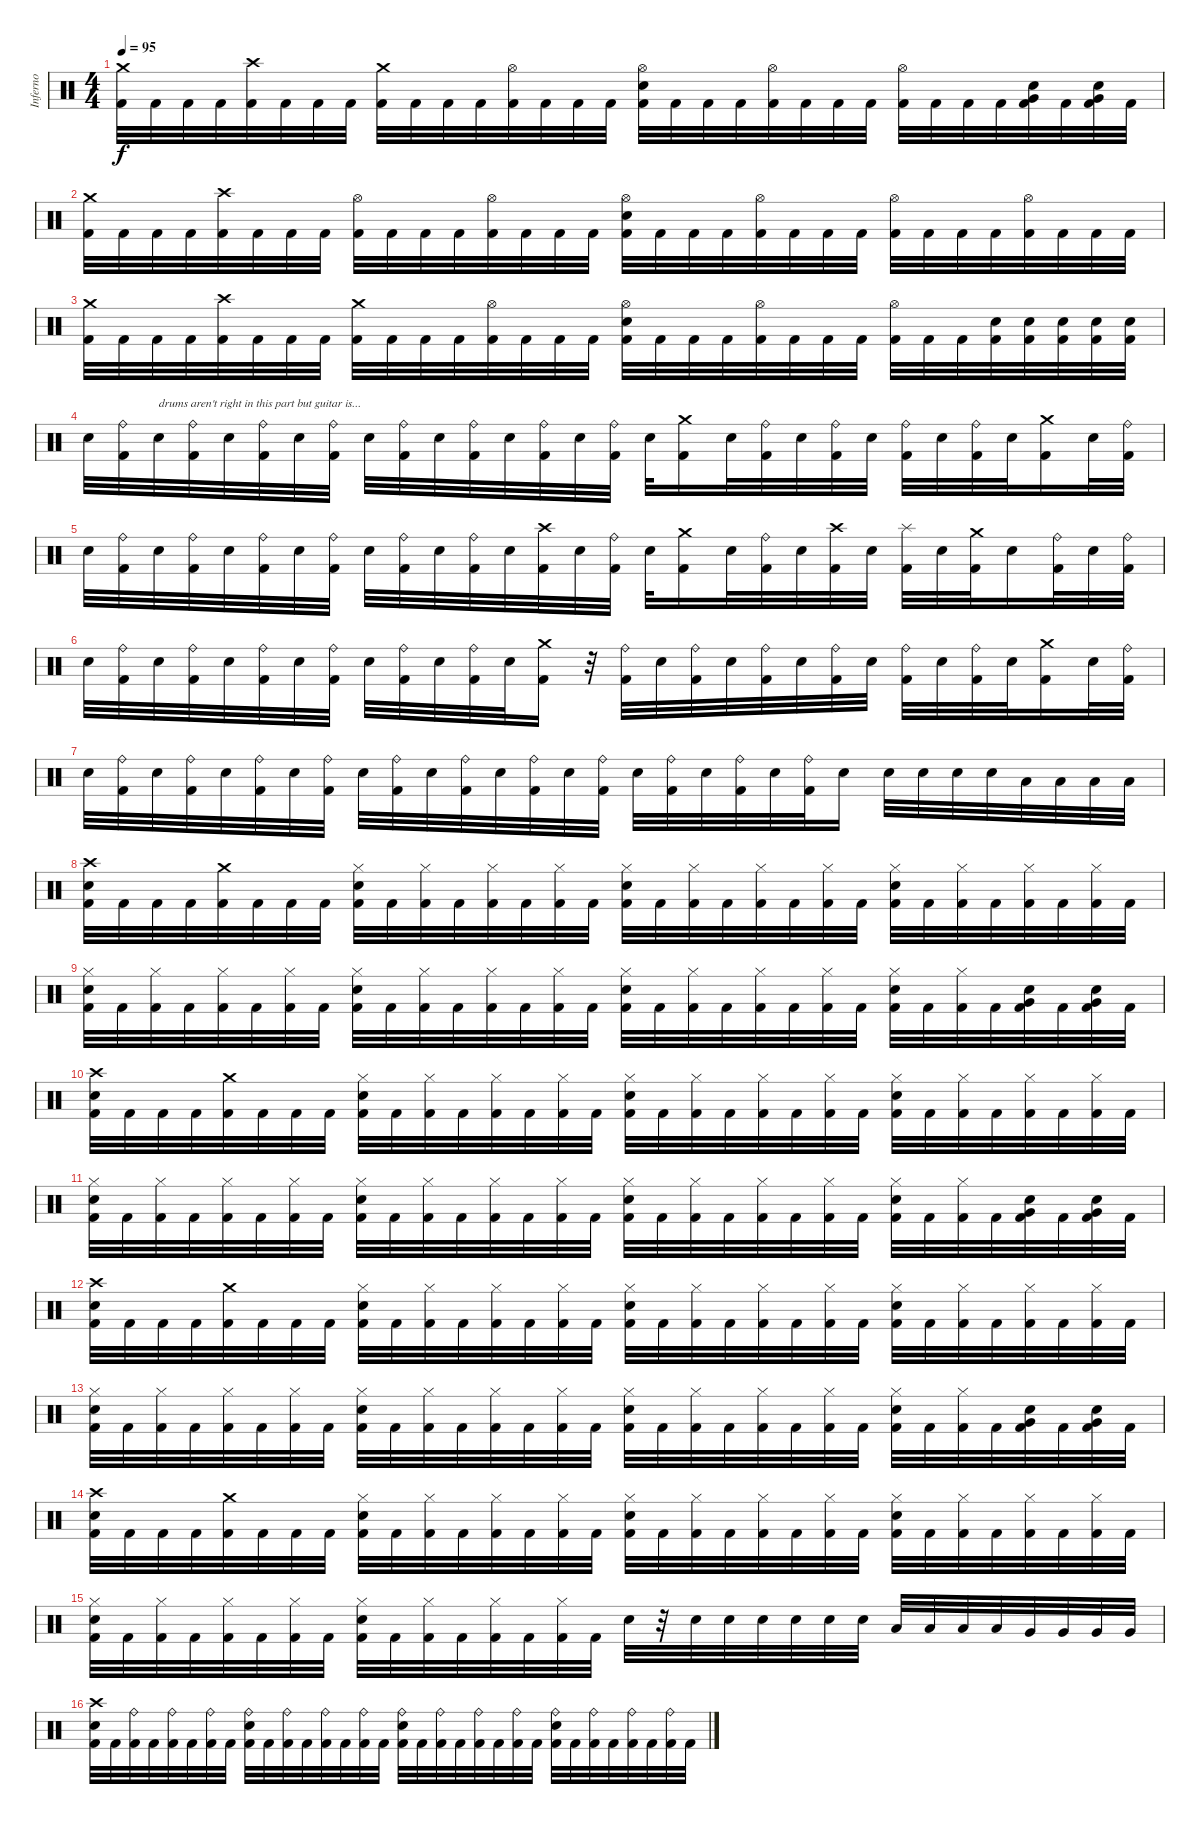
\track ("Inferno" "Inferno") {instrument percussion}
\staff {score}
\articulation defaults
\ts (4 4)
\tempo 95
\clef neutral
\ks c
("Crash medium (hit)" "Kick (hit) 2").32{dy f} "Kick (hit) 2".32 "Kick (hit) 2".32 "Kick (hit) 2".32 ("Crash high (hit)" "Kick (hit) 2").32 "Kick (hit) 2".32 "Kick (hit) 2".32 "Kick (hit) 2".32 ("Crash medium (hit)" "Kick (hit) 2").32 "Kick (hit) 2".32 "Kick (hit) 2".32 "Kick (hit) 2".32 ("Hi-Hat (open)" "Kick (hit) 2").32 "Kick (hit) 2".32 "Kick (hit) 2".32 "Kick (hit) 2".32 ("Hi-Hat (open)" "Electric Snare (hit)" "Kick (hit) 2").32 "Kick (hit) 2".32 "Kick (hit) 2".32 "Kick (hit) 2".32 ("Hi-Hat (open)" "Kick (hit) 2").32 "Kick (hit) 2".32 "Kick (hit) 2".32 "Kick (hit) 2".32 ("Hi-Hat (open)" "Kick (hit) 2").32 "Kick (hit) 2".32 "Kick (hit) 2".32 "Kick (hit) 2".32 ("Very Low Tom (hit)" "Electric Snare (hit)" "Kick (hit) 2").32 "Kick (hit) 2".32 ("Very Low Tom (hit)" "Electric Snare (hit)" "Kick (hit) 2").32 "Kick (hit) 2".32 |
("Crash medium (hit)" "Kick (hit) 2").32 "Kick (hit) 2".32 "Kick (hit) 2".32 "Kick (hit) 2".32 ("Crash high (hit)" "Kick (hit) 2").32 "Kick (hit) 2".32 "Kick (hit) 2".32 "Kick (hit) 2".32 ("Hi-Hat (open)" "Kick (hit) 2").32 "Kick (hit) 2".32 "Kick (hit) 2".32 "Kick (hit) 2".32 ("Hi-Hat (open)" "Kick (hit) 2").32 "Kick (hit) 2".32 "Kick (hit) 2".32 "Kick (hit) 2".32 ("Hi-Hat (open)" "Electric Snare (hit)" "Kick (hit) 2").32 "Kick (hit) 2".32 "Kick (hit) 2".32 "Kick (hit) 2".32 ("Hi-Hat (open)" "Kick (hit) 2").32 "Kick (hit) 2".32 "Kick (hit) 2".32 "Kick (hit) 2".32 ("Hi-Hat (open)" "Kick (hit) 2").32 "Kick (hit) 2".32 "Kick (hit) 2".32 "Kick (hit) 2".32 ("Hi-Hat (open)" "Kick (hit) 2").32 "Kick (hit) 2".32 "Kick (hit) 2".32 "Kick (hit) 2".32 |
("Crash medium (hit)" "Kick (hit) 2").32 "Kick (hit) 2".32 "Kick (hit) 2".32 "Kick (hit) 2".32 ("Crash high (hit)" "Kick (hit) 2").32 "Kick (hit) 2".32 "Kick (hit) 2".32 "Kick (hit) 2".32 ("Crash medium (hit)" "Kick (hit) 2").32 "Kick (hit) 2".32 "Kick (hit) 2".32 "Kick (hit) 2".32 ("Hi-Hat (open)" "Kick (hit) 2").32 "Kick (hit) 2".32 "Kick (hit) 2".32 "Kick (hit) 2".32 ("Hi-Hat (open)" "Electric Snare (hit)" "Kick (hit) 2").32 "Kick (hit) 2".32 "Kick (hit) 2".32 "Kick (hit) 2".32 ("Hi-Hat (open)" "Kick (hit) 2").32 "Kick (hit) 2".32 "Kick (hit) 2".32 "Kick (hit) 2".32 ("Hi-Hat (open)" "Kick (hit) 2").32 "Kick (hit) 2".32 "Kick (hit) 2".32 ("Electric Snare (hit)" "Kick (hit) 2").32 ("Electric Snare (hit)" "Kick (hit) 2").32 ("Electric Snare (hit)" "Kick (hit) 2").32 ("Electric Snare (hit)" "Kick (hit) 2").32 ("Electric Snare (hit)" "Kick (hit) 2").32 |
"Electric Snare (hit)".32 ("Ride (bell)" "Kick (hit) 2").32 "Electric Snare (hit)".32{txt "drums aren't right in this part but guitar is..."} ("Ride (bell)" "Kick (hit) 2").32 "Electric Snare (hit)".32 ("Ride (bell)" "Kick (hit) 2").32 "Electric Snare (hit)".32 ("Ride (bell)" "Kick (hit) 2").32 "Electric Snare (hit)".32 ("Ride (bell)" "Kick (hit) 2").32 "Electric Snare (hit)".32 ("Ride (bell)" "Kick (hit) 2").32 "Electric Snare (hit)".32 ("Ride (bell)" "Kick (hit) 2").32 "Electric Snare (hit)".32 ("Ride (bell)" "Kick (hit) 2").32 "Electric Snare (hit)".32 ("Crash medium (hit)" "Kick (hit) 2").16 "Electric Snare (hit)".32 ("Ride (bell)" "Kick (hit) 2").32 "Electric Snare (hit)".32 ("Ride (bell)" "Kick (hit) 2").32 "Electric Snare (hit)".32 ("Ride (bell)" "Kick (hit) 2").32 "Electric Snare (hit)".32 ("Ride (bell)" "Kick (hit) 2").32 "Electric Snare (hit)".32 ("Crash medium (hit)" "Kick (hit) 2").16 "Electric Snare (hit)".32 ("Ride (bell)" "Kick (hit) 2").32 |
"Electric Snare (hit)".32 ("Ride (bell)" "Kick (hit) 2").32 "Electric Snare (hit)".32 ("Ride (bell)" "Kick (hit) 2").32 "Electric Snare (hit)".32 ("Ride (bell)" "Kick (hit) 2").32 "Electric Snare (hit)".32 ("Ride (bell)" "Kick (hit) 2").32 "Electric Snare (hit)".32 ("Ride (bell)" "Kick (hit) 2").32 "Electric Snare (hit)".32 ("Ride (bell)" "Kick (hit) 2").32 "Electric Snare (hit)".32 ("Crash high (hit)" "Kick (hit) 2").32 "Electric Snare (hit)".32 ("Ride (bell)" "Kick (hit) 2").32 "Electric Snare (hit)".32 ("Crash medium (hit)" "Kick (hit) 2").16 "Electric Snare (hit)".32 ("Ride (bell)" "Kick (hit) 2").32 "Electric Snare (hit)".32 ("Crash high (hit)" "Kick (hit) 2").32 "Electric Snare (hit)".32 ("Splash (hit)" "Kick (hit) 2").32 "Electric Snare (hit)".32 ("Crash medium (hit)" "Kick (hit) 2").32 "Electric Snare (hit)".16 ("Ride (bell)" "Kick (hit) 2").32 "Electric Snare (hit)".32 ("Ride (bell)" "Kick (hit) 2").32 |
"Electric Snare (hit)".32 ("Ride (bell)" "Kick (hit) 2").32 "Electric Snare (hit)".32 ("Ride (bell)" "Kick (hit) 2").32 "Electric Snare (hit)".32 ("Ride (bell)" "Kick (hit) 2").32 "Electric Snare (hit)".32 ("Ride (bell)" "Kick (hit) 2").32 "Electric Snare (hit)".32 ("Ride (bell)" "Kick (hit) 2").32 "Electric Snare (hit)".32 ("Ride (bell)" "Kick (hit) 2").32 "Electric Snare (hit)".32 ("Crash medium (hit)" "Kick (hit) 2").16 r.32 ("Ride (bell)" "Kick (hit) 2").32 "Electric Snare (hit)".32 ("Ride (bell)" "Kick (hit) 2").32 "Electric Snare (hit)".32 ("Ride (bell)" "Kick (hit) 2").32 "Electric Snare (hit)".32 ("Ride (bell)" "Kick (hit) 2").32 "Electric Snare (hit)".32 ("Ride (bell)" "Kick (hit) 2").32 "Electric Snare (hit)".32 ("Ride (bell)" "Kick (hit) 2").32 "Electric Snare (hit)".32 ("Crash medium (hit)" "Kick (hit) 2").16 "Electric Snare (hit)".32 ("Ride (bell)" "Kick (hit) 2").32 |
"Electric Snare (hit)".32 ("Ride (bell)" "Kick (hit) 2").32 "Electric Snare (hit)".32 ("Ride (bell)" "Kick (hit) 2").32 "Electric Snare (hit)".32 ("Ride (bell)" "Kick (hit) 2").32 "Electric Snare (hit)".32 ("Ride (bell)" "Kick (hit) 2").32 "Electric Snare (hit)".32 ("Ride (bell)" "Kick (hit) 2").32 "Electric Snare (hit)".32 ("Ride (bell)" "Kick (hit) 2").32 "Electric Snare (hit)".32 ("Ride (bell)" "Kick (hit) 2").32 "Electric Snare (hit)".32 ("Ride (bell)" "Kick (hit) 2").32 "Electric Snare (hit)".32 ("Ride (bell)" "Kick (hit) 2").32 "Electric Snare (hit)".32 ("Ride (bell)" "Kick (hit) 2").32 "Electric Snare (hit)".32 ("Ride (bell)" "Kick (hit) 2").32 "Electric Snare (hit)".16 "Electric Snare (hit)".32 "Electric Snare (hit)".32 "Electric Snare (hit)".32 "Electric Snare (hit)".32 "Low Tom (hit)".32 "Low Tom (hit)".32 "Low Tom (hit)".32 "Low Floor Tom (hit)".32 |
("Crash high (hit)" "Electric Snare (hit)" "Kick (hit) 2").32 "Kick (hit) 2".32 "Kick (hit) 2".32 "Kick (hit) 2".32 ("Crash medium (hit)" "Kick (hit) 2").32 "Kick (hit) 2".32 "Kick (hit) 2".32 "Kick (hit) 2".32 ("Hi-Hat (closed)" "Electric Snare (hit)" "Kick (hit) 2").32 "Kick (hit) 2".32 ("Hi-Hat (closed)" "Kick (hit) 2").32 "Kick (hit) 2".32 ("Hi-Hat (closed)" "Kick (hit) 2").32 "Kick (hit) 2".32 ("Hi-Hat (closed)" "Kick (hit) 2").32 "Kick (hit) 2".32 ("Hi-Hat (closed)" "Electric Snare (hit)" "Kick (hit) 2").32 "Kick (hit) 2".32 ("Hi-Hat (closed)" "Kick (hit) 2").32 "Kick (hit) 2".32 ("Hi-Hat (closed)" "Kick (hit) 2").32 "Kick (hit) 2".32 ("Hi-Hat (closed)" "Kick (hit) 2").32 "Kick (hit) 2".32 ("Hi-Hat (closed)" "Electric Snare (hit)" "Kick (hit) 2").32 "Kick (hit) 2".32 ("Hi-Hat (closed)" "Kick (hit) 2").32 "Kick (hit) 2".32 ("Hi-Hat (closed)" "Kick (hit) 2").32 "Kick (hit) 2".32 ("Hi-Hat (closed)" "Kick (hit) 2").32 "Kick (hit) 2".32 |
("Hi-Hat (closed)" "Electric Snare (hit)" "Kick (hit) 2").32 "Kick (hit) 2".32 ("Hi-Hat (closed)" "Kick (hit) 2").32 "Kick (hit) 2".32 ("Hi-Hat (closed)" "Kick (hit) 2").32 "Kick (hit) 2".32 ("Hi-Hat (closed)" "Kick (hit) 2").32 "Kick (hit) 2".32 ("Hi-Hat (closed)" "Electric Snare (hit)" "Kick (hit) 2").32 "Kick (hit) 2".32 ("Hi-Hat (closed)" "Kick (hit) 2").32 "Kick (hit) 2".32 ("Hi-Hat (closed)" "Kick (hit) 2").32 "Kick (hit) 2".32 ("Hi-Hat (closed)" "Kick (hit) 2").32 "Kick (hit) 2".32 ("Hi-Hat (closed)" "Electric Snare (hit)" "Kick (hit) 2").32 "Kick (hit) 2".32 ("Hi-Hat (closed)" "Kick (hit) 2").32 "Kick (hit) 2".32 ("Hi-Hat (closed)" "Kick (hit) 2").32 "Kick (hit) 2".32 ("Hi-Hat (closed)" "Kick (hit) 2").32 "Kick (hit) 2".32 ("Hi-Hat (closed)" "Electric Snare (hit)" "Kick (hit) 2").32 "Kick (hit) 2".32 ("Hi-Hat (closed)" "Kick (hit) 2").32 "Kick (hit) 2".32 ("Very Low Tom (hit)" "Electric Snare (hit)" "Kick (hit) 2").32 "Kick (hit) 2".32 ("Very Low Tom (hit)" "Electric Snare (hit)" "Kick (hit) 2").32 "Kick (hit) 2".32 |
("Crash high (hit)" "Electric Snare (hit)" "Kick (hit) 2").32 "Kick (hit) 2".32 "Kick (hit) 2".32 "Kick (hit) 2".32 ("Crash medium (hit)" "Kick (hit) 2").32 "Kick (hit) 2".32 "Kick (hit) 2".32 "Kick (hit) 2".32 ("Hi-Hat (closed)" "Electric Snare (hit)" "Kick (hit) 2").32 "Kick (hit) 2".32 ("Hi-Hat (closed)" "Kick (hit) 2").32 "Kick (hit) 2".32 ("Hi-Hat (closed)" "Kick (hit) 2").32 "Kick (hit) 2".32 ("Hi-Hat (closed)" "Kick (hit) 2").32 "Kick (hit) 2".32 ("Hi-Hat (closed)" "Electric Snare (hit)" "Kick (hit) 2").32 "Kick (hit) 2".32 ("Hi-Hat (closed)" "Kick (hit) 2").32 "Kick (hit) 2".32 ("Hi-Hat (closed)" "Kick (hit) 2").32 "Kick (hit) 2".32 ("Hi-Hat (closed)" "Kick (hit) 2").32 "Kick (hit) 2".32 ("Hi-Hat (closed)" "Electric Snare (hit)" "Kick (hit) 2").32 "Kick (hit) 2".32 ("Hi-Hat (closed)" "Kick (hit) 2").32 "Kick (hit) 2".32 ("Hi-Hat (closed)" "Kick (hit) 2").32 "Kick (hit) 2".32 ("Hi-Hat (closed)" "Kick (hit) 2").32 "Kick (hit) 2".32 |
("Hi-Hat (closed)" "Electric Snare (hit)" "Kick (hit) 2").32 "Kick (hit) 2".32 ("Hi-Hat (closed)" "Kick (hit) 2").32 "Kick (hit) 2".32 ("Hi-Hat (closed)" "Kick (hit) 2").32 "Kick (hit) 2".32 ("Hi-Hat (closed)" "Kick (hit) 2").32 "Kick (hit) 2".32 ("Hi-Hat (closed)" "Electric Snare (hit)" "Kick (hit) 2").32 "Kick (hit) 2".32 ("Hi-Hat (closed)" "Kick (hit) 2").32 "Kick (hit) 2".32 ("Hi-Hat (closed)" "Kick (hit) 2").32 "Kick (hit) 2".32 ("Hi-Hat (closed)" "Kick (hit) 2").32 "Kick (hit) 2".32 ("Hi-Hat (closed)" "Electric Snare (hit)" "Kick (hit) 2").32 "Kick (hit) 2".32 ("Hi-Hat (closed)" "Kick (hit) 2").32 "Kick (hit) 2".32 ("Hi-Hat (closed)" "Kick (hit) 2").32 "Kick (hit) 2".32 ("Hi-Hat (closed)" "Kick (hit) 2").32 "Kick (hit) 2".32 ("Hi-Hat (closed)" "Electric Snare (hit)" "Kick (hit) 2").32 "Kick (hit) 2".32 ("Hi-Hat (closed)" "Kick (hit) 2").32 "Kick (hit) 2".32 ("Very Low Tom (hit)" "Electric Snare (hit)" "Kick (hit) 2").32 "Kick (hit) 2".32 ("Very Low Tom (hit)" "Electric Snare (hit)" "Kick (hit) 2").32 "Kick (hit) 2".32 |
("Crash high (hit)" "Electric Snare (hit)" "Kick (hit) 2").32 "Kick (hit) 2".32 "Kick (hit) 2".32 "Kick (hit) 2".32 ("Crash medium (hit)" "Kick (hit) 2").32 "Kick (hit) 2".32 "Kick (hit) 2".32 "Kick (hit) 2".32 ("Hi-Hat (closed)" "Electric Snare (hit)" "Kick (hit) 2").32 "Kick (hit) 2".32 ("Hi-Hat (closed)" "Kick (hit) 2").32 "Kick (hit) 2".32 ("Hi-Hat (closed)" "Kick (hit) 2").32 "Kick (hit) 2".32 ("Hi-Hat (closed)" "Kick (hit) 2").32 "Kick (hit) 2".32 ("Hi-Hat (closed)" "Electric Snare (hit)" "Kick (hit) 2").32 "Kick (hit) 2".32 ("Hi-Hat (closed)" "Kick (hit) 2").32 "Kick (hit) 2".32 ("Hi-Hat (closed)" "Kick (hit) 2").32 "Kick (hit) 2".32 ("Hi-Hat (closed)" "Kick (hit) 2").32 "Kick (hit) 2".32 ("Hi-Hat (closed)" "Electric Snare (hit)" "Kick (hit) 2").32 "Kick (hit) 2".32 ("Hi-Hat (closed)" "Kick (hit) 2").32 "Kick (hit) 2".32 ("Hi-Hat (closed)" "Kick (hit) 2").32 "Kick (hit) 2".32 ("Hi-Hat (closed)" "Kick (hit) 2").32 "Kick (hit) 2".32 |
("Hi-Hat (closed)" "Electric Snare (hit)" "Kick (hit) 2").32 "Kick (hit) 2".32 ("Hi-Hat (closed)" "Kick (hit) 2").32 "Kick (hit) 2".32 ("Hi-Hat (closed)" "Kick (hit) 2").32 "Kick (hit) 2".32 ("Hi-Hat (closed)" "Kick (hit) 2").32 "Kick (hit) 2".32 ("Hi-Hat (closed)" "Electric Snare (hit)" "Kick (hit) 2").32 "Kick (hit) 2".32 ("Hi-Hat (closed)" "Kick (hit) 2").32 "Kick (hit) 2".32 ("Hi-Hat (closed)" "Kick (hit) 2").32 "Kick (hit) 2".32 ("Hi-Hat (closed)" "Kick (hit) 2").32 "Kick (hit) 2".32 ("Hi-Hat (closed)" "Electric Snare (hit)" "Kick (hit) 2").32 "Kick (hit) 2".32 ("Hi-Hat (closed)" "Kick (hit) 2").32 "Kick (hit) 2".32 ("Hi-Hat (closed)" "Kick (hit) 2").32 "Kick (hit) 2".32 ("Hi-Hat (closed)" "Kick (hit) 2").32 "Kick (hit) 2".32 ("Hi-Hat (closed)" "Electric Snare (hit)" "Kick (hit) 2").32 "Kick (hit) 2".32 ("Hi-Hat (closed)" "Kick (hit) 2").32 "Kick (hit) 2".32 ("Very Low Tom (hit)" "Electric Snare (hit)" "Kick (hit) 2").32 "Kick (hit) 2".32 ("Very Low Tom (hit)" "Electric Snare (hit)" "Kick (hit) 2").32 "Kick (hit) 2".32 |
("Crash high (hit)" "Electric Snare (hit)" "Kick (hit) 2").32 "Kick (hit) 2".32 "Kick (hit) 2".32 "Kick (hit) 2".32 ("Crash medium (hit)" "Kick (hit) 2").32 "Kick (hit) 2".32 "Kick (hit) 2".32 "Kick (hit) 2".32 ("Hi-Hat (closed)" "Electric Snare (hit)" "Kick (hit) 2").32 "Kick (hit) 2".32 ("Hi-Hat (closed)" "Kick (hit) 2").32 "Kick (hit) 2".32 ("Hi-Hat (closed)" "Kick (hit) 2").32 "Kick (hit) 2".32 ("Hi-Hat (closed)" "Kick (hit) 2").32 "Kick (hit) 2".32 ("Hi-Hat (closed)" "Electric Snare (hit)" "Kick (hit) 2").32 "Kick (hit) 2".32 ("Hi-Hat (closed)" "Kick (hit) 2").32 "Kick (hit) 2".32 ("Hi-Hat (closed)" "Kick (hit) 2").32 "Kick (hit) 2".32 ("Hi-Hat (closed)" "Kick (hit) 2").32 "Kick (hit) 2".32 ("Hi-Hat (closed)" "Electric Snare (hit)" "Kick (hit) 2").32 "Kick (hit) 2".32 ("Hi-Hat (closed)" "Kick (hit) 2").32 "Kick (hit) 2".32 ("Hi-Hat (closed)" "Kick (hit) 2").32 "Kick (hit) 2".32 ("Hi-Hat (closed)" "Kick (hit) 2").32 "Kick (hit) 2".32 |
("Hi-Hat (closed)" "Electric Snare (hit)" "Kick (hit) 2").32 "Kick (hit) 2".32 ("Hi-Hat (closed)" "Kick (hit) 2").32 "Kick (hit) 2".32 ("Hi-Hat (closed)" "Kick (hit) 2").32 "Kick (hit) 2".32 ("Hi-Hat (closed)" "Kick (hit) 2").32 "Kick (hit) 2".32 ("Hi-Hat (closed)" "Electric Snare (hit)" "Kick (hit) 2").32 "Kick (hit) 2".32 ("Hi-Hat (closed)" "Kick (hit) 2").32 "Kick (hit) 2".32 ("Hi-Hat (closed)" "Kick (hit) 2").32 "Kick (hit) 2".32 ("Hi-Hat (closed)" "Kick (hit) 2").32 "Kick (hit) 2".32 "Electric Snare (hit)".32 r.32 "Electric Snare (hit)".32 "Electric Snare (hit)".32 "Electric Snare (hit)".32 "Electric Snare (hit)".32 "Electric Snare (hit)".32 "Electric Snare (hit)".32 "Low Tom (hit)".32 "Low Tom (hit)".32 "Low Tom (hit)".32 "Low Tom (hit)".32 "Very Low Tom (hit)".32 "Very Low Tom (hit)".32 "Very Low Tom (hit)".32 "Very Low Tom (hit)".32 |
("Crash high (hit)" "Electric Snare (hit)" "Kick (hit) 2").32 "Kick (hit) 2".32 ("Ride (bell)" "Kick (hit) 2").32 "Kick (hit) 2".32 ("Ride (bell)" "Kick (hit) 2").32 "Kick (hit) 2".32 ("Ride (bell)" "Kick (hit) 2").32 "Kick (hit) 2".32 ("Ride (bell)" "Electric Snare (hit)" "Kick (hit) 2").32 "Kick (hit) 2".32 ("Ride (bell)" "Kick (hit) 2").32 "Kick (hit) 2".32 ("Ride (bell)" "Kick (hit) 2").32 "Kick (hit) 2".32 ("Ride (bell)" "Kick (hit) 2").32 "Kick (hit) 2".32 ("Ride (bell)" "Electric Snare (hit)" "Kick (hit) 2").32 "Kick (hit) 2".32 ("Ride (bell)" "Kick (hit) 2").32 "Kick (hit) 2".32 ("Ride (bell)" "Kick (hit) 2").32 "Kick (hit) 2".32 ("Ride (bell)" "Kick (hit) 2").32 "Kick (hit) 2".32 ("Ride (bell)" "Electric Snare (hit)" "Kick (hit) 2").32 "Kick (hit) 2".32 ("Ride (bell)" "Kick (hit) 2").32 "Kick (hit) 2".32 ("Ride (bell)" "Kick (hit) 2").32 "Kick (hit) 2".32 ("Ride (bell)" "Kick (hit) 2").32 "Kick (hit) 2".32
